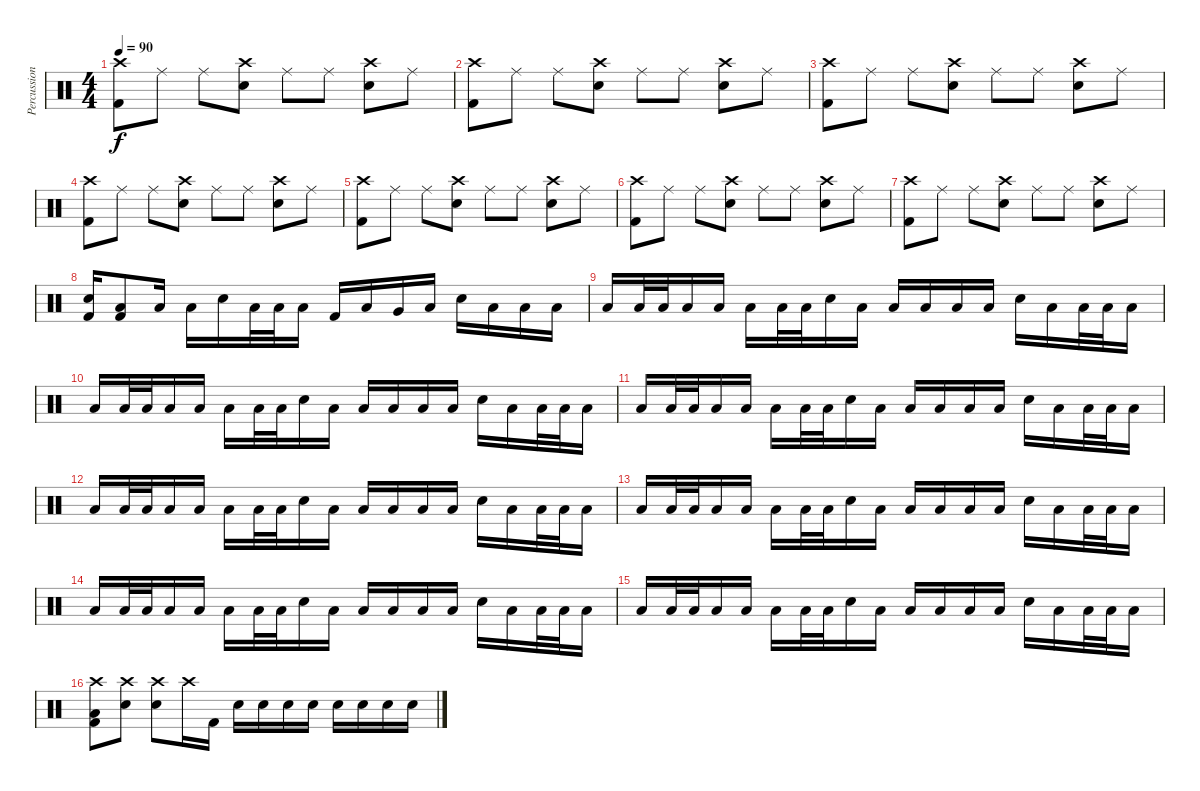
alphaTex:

\track ("Percussion" "Percussion") {instrument percussion}
\staff {score}
\articulation defaults
\ts (4 4)
\tempo 90
\clef neutral
\ks c
("Crash high (hit)" "Kick (hit) 2").8{dy f} "Ride (middle)".8 "Ride (middle)".8 ("Crash high (hit)" "Snare (hit) 2").8 "Ride (middle)".8 "Ride (middle)".8 ("Crash high (hit)" "Snare (hit) 2").8 "Ride (middle)".8 |
("Crash high (hit)" "Kick (hit) 2").8 "Ride (middle)".8 "Ride (middle)".8 ("Crash high (hit)" "Snare (hit) 2").8 "Ride (middle)".8 "Ride (middle)".8 ("Crash high (hit)" "Snare (hit) 2").8 "Ride (middle)".8 |
("Crash high (hit)" "Kick (hit) 2").8 "Ride (middle)".8 "Ride (middle)".8 ("Crash high (hit)" "Snare (hit) 2").8 "Ride (middle)".8 "Ride (middle)".8 ("Crash high (hit)" "Snare (hit) 2").8 "Ride (middle)".8 |
("Crash high (hit)" "Kick (hit) 2").8 "Ride (middle)".8 "Ride (middle)".8 ("Crash high (hit)" "Snare (hit) 2").8 "Ride (middle)".8 "Ride (middle)".8 ("Crash high (hit)" "Snare (hit) 2").8 "Ride (middle)".8 |
("Crash high (hit)" "Kick (hit) 2").8 "Ride (middle)".8 "Ride (middle)".8 ("Crash high (hit)" "Snare (hit) 2").8 "Ride (middle)".8 "Ride (middle)".8 ("Crash high (hit)" "Snare (hit) 2").8 "Ride (middle)".8 |
("Crash high (hit)" "Kick (hit) 2").8 "Ride (middle)".8 "Ride (middle)".8 ("Crash high (hit)" "Snare (hit) 2").8 "Ride (middle)".8 "Ride (middle)".8 ("Crash high (hit)" "Snare (hit) 2").8 "Ride (middle)".8 |
("Crash high (hit)" "Kick (hit) 2").8 "Ride (middle)".8 "Ride (middle)".8 ("Crash high (hit)" "Snare (hit) 2").8 "Ride (middle)".8 "Ride (middle)".8 ("Crash high (hit)" "Snare (hit) 2").8 "Ride (middle)".8 |
("Snare (hit) 2" "Kick (hit) 2").16 ("Low Floor Tom (hit)" "Kick (hit) 2").8 "Low Floor Tom (hit)".16 "Low Floor Tom (hit)".16 "Snare (hit) 2".16 "Low Floor Tom (hit)".32 "Low Floor Tom (hit)".32 "Low Floor Tom (hit)".16 "Kick (hit) 2".16 "Low Floor Tom (hit)".16 "Very Low Tom (hit)".16 "Low Floor Tom (hit)".16 "Snare (hit) 2".16 "Low Floor Tom (hit)".16 "Low Floor Tom (hit)".16 "Low Floor Tom (hit)".16 |
"Low Floor Tom (hit)".16 "Low Floor Tom (hit)".32 "Low Floor Tom (hit)".32 "Low Floor Tom (hit)".16 "Low Floor Tom (hit)".16 "Low Floor Tom (hit)".16 "Low Floor Tom (hit)".32 "Low Floor Tom (hit)".32 "Snare (hit) 2".16 "Low Floor Tom (hit)".16 "Low Floor Tom (hit)".16 "Low Floor Tom (hit)".16 "Low Floor Tom (hit)".16 "Low Floor Tom (hit)".16 "Snare (hit) 2".16 "Low Floor Tom (hit)".16 "Low Floor Tom (hit)".32 "Low Floor Tom (hit)".32 "Low Floor Tom (hit)".16 |
"Low Floor Tom (hit)".16 "Low Floor Tom (hit)".32 "Low Floor Tom (hit)".32 "Low Floor Tom (hit)".16 "Low Floor Tom (hit)".16 "Low Floor Tom (hit)".16 "Low Floor Tom (hit)".32 "Low Floor Tom (hit)".32 "Snare (hit) 2".16 "Low Floor Tom (hit)".16 "Low Floor Tom (hit)".16 "Low Floor Tom (hit)".16 "Low Floor Tom (hit)".16 "Low Floor Tom (hit)".16 "Snare (hit) 2".16 "Low Floor Tom (hit)".16 "Low Floor Tom (hit)".32 "Low Floor Tom (hit)".32 "Low Floor Tom (hit)".16 |
"Low Floor Tom (hit)".16 "Low Floor Tom (hit)".32 "Low Floor Tom (hit)".32 "Low Floor Tom (hit)".16 "Low Floor Tom (hit)".16 "Low Floor Tom (hit)".16 "Low Floor Tom (hit)".32 "Low Floor Tom (hit)".32 "Snare (hit) 2".16 "Low Floor Tom (hit)".16 "Low Floor Tom (hit)".16 "Low Floor Tom (hit)".16 "Low Floor Tom (hit)".16 "Low Floor Tom (hit)".16 "Snare (hit) 2".16 "Low Floor Tom (hit)".16 "Low Floor Tom (hit)".32 "Low Floor Tom (hit)".32 "Low Floor Tom (hit)".16 |
"Low Floor Tom (hit)".16 "Low Floor Tom (hit)".32 "Low Floor Tom (hit)".32 "Low Floor Tom (hit)".16 "Low Floor Tom (hit)".16 "Low Floor Tom (hit)".16 "Low Floor Tom (hit)".32 "Low Floor Tom (hit)".32 "Snare (hit) 2".16 "Low Floor Tom (hit)".16 "Low Floor Tom (hit)".16 "Low Floor Tom (hit)".16 "Low Floor Tom (hit)".16 "Low Floor Tom (hit)".16 "Snare (hit) 2".16 "Low Floor Tom (hit)".16 "Low Floor Tom (hit)".32 "Low Floor Tom (hit)".32 "Low Floor Tom (hit)".16 |
"Low Floor Tom (hit)".16 "Low Floor Tom (hit)".32 "Low Floor Tom (hit)".32 "Low Floor Tom (hit)".16 "Low Floor Tom (hit)".16 "Low Floor Tom (hit)".16 "Low Floor Tom (hit)".32 "Low Floor Tom (hit)".32 "Snare (hit) 2".16 "Low Floor Tom (hit)".16 "Low Floor Tom (hit)".16 "Low Floor Tom (hit)".16 "Low Floor Tom (hit)".16 "Low Floor Tom (hit)".16 "Snare (hit) 2".16 "Low Floor Tom (hit)".16 "Low Floor Tom (hit)".32 "Low Floor Tom (hit)".32 "Low Floor Tom (hit)".16 |
"Low Floor Tom (hit)".16 "Low Floor Tom (hit)".32 "Low Floor Tom (hit)".32 "Low Floor Tom (hit)".16 "Low Floor Tom (hit)".16 "Low Floor Tom (hit)".16 "Low Floor Tom (hit)".32 "Low Floor Tom (hit)".32 "Snare (hit) 2".16 "Low Floor Tom (hit)".16 "Low Floor Tom (hit)".16 "Low Floor Tom (hit)".16 "Low Floor Tom (hit)".16 "Low Floor Tom (hit)".16 "Snare (hit) 2".16 "Low Floor Tom (hit)".16 "Low Floor Tom (hit)".32 "Low Floor Tom (hit)".32 "Low Floor Tom (hit)".16 |
"Low Floor Tom (hit)".16 "Low Floor Tom (hit)".32 "Low Floor Tom (hit)".32 "Low Floor Tom (hit)".16 "Low Floor Tom (hit)".16 "Low Floor Tom (hit)".16 "Low Floor Tom (hit)".32 "Low Floor Tom (hit)".32 "Snare (hit) 2".16 "Low Floor Tom (hit)".16 "Low Floor Tom (hit)".16 "Low Floor Tom (hit)".16 "Low Floor Tom (hit)".16 "Low Floor Tom (hit)".16 "Snare (hit) 2".16 "Low Floor Tom (hit)".16 "Low Floor Tom (hit)".32 "Low Floor Tom (hit)".32 "Low Floor Tom (hit)".16 |
("Crash high (hit)" "Low Floor Tom (hit)" "Kick (hit) 2").8 ("Crash high (hit)" "Snare (hit) 2").8 ("Crash high (hit)" "Snare (hit) 2").8 "Crash high (hit)".16 "Kick (hit) 2".16 "Snare (hit) 2".16 "Snare (hit) 2".16 "Snare (hit) 2".16 "Snare (hit) 2".16 "Snare (hit) 2".16 "Snare (hit) 2".16 "Snare (hit) 2".16 "Snare (hit) 2".16
